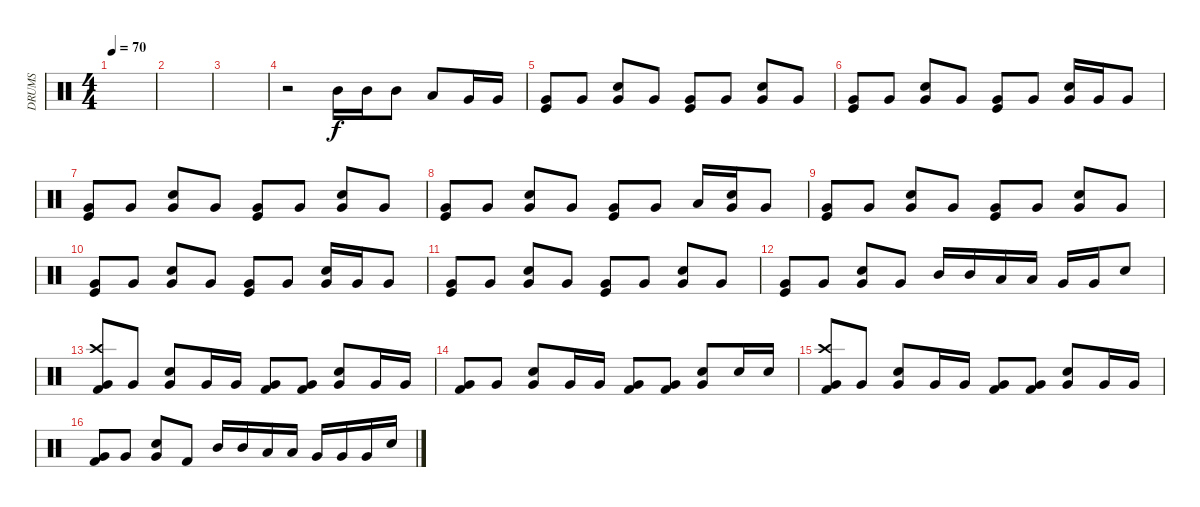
\track ("DRUMS" "DRUMS") {instrument percussion}
\staff {score}
\articulation defaults
\ts (4 4)
\tempo 70
\clef neutral
\ks c
|
|
|
r.2 "Mid Tom (hit)".16 "Mid Tom (hit)".16 "Mid Tom (hit)".8 "Low Tom (hit)".8 "Very Low Tom (hit)".16 "Very Low Tom (hit)".16 |
("Kick (hit)" "Very Low Tom (hit)").8 "Very Low Tom (hit)".8 ("Snare (hit) 2" "Very Low Tom (hit)").8 "Very Low Tom (hit)".8 ("Kick (hit)" "Very Low Tom (hit)").8 "Very Low Tom (hit)".8 ("Snare (hit) 2" "Very Low Tom (hit)").8 "Very Low Tom (hit)".8 |
("Kick (hit)" "Very Low Tom (hit)").8 "Very Low Tom (hit)".8 ("Snare (hit) 2" "Very Low Tom (hit)").8 "Very Low Tom (hit)".8 ("Kick (hit)" "Very Low Tom (hit)").8 "Very Low Tom (hit)".8 ("Snare (hit) 2" "Very Low Tom (hit)").16 "Very Low Tom (hit)".16 "Very Low Tom (hit)".8 |
("Kick (hit)" "Very Low Tom (hit)").8 "Very Low Tom (hit)".8 ("Snare (hit) 2" "Very Low Tom (hit)").8 "Very Low Tom (hit)".8 ("Kick (hit)" "Very Low Tom (hit)").8 "Very Low Tom (hit)".8 ("Snare (hit) 2" "Very Low Tom (hit)").8 "Very Low Tom (hit)".8 |
("Kick (hit)" "Very Low Tom (hit)").8 "Very Low Tom (hit)".8 ("Snare (hit) 2" "Very Low Tom (hit)").8 "Very Low Tom (hit)".8 ("Kick (hit)" "Very Low Tom (hit)").8 "Very Low Tom (hit)".8 "Low Tom (hit)".16 ("Snare (hit) 2" "Very Low Tom (hit)").16 "Very Low Tom (hit)".8 |
("Kick (hit)" "Very Low Tom (hit)").8 "Very Low Tom (hit)".8 ("Snare (hit) 2" "Very Low Tom (hit)").8 "Very Low Tom (hit)".8 ("Kick (hit)" "Very Low Tom (hit)").8 "Very Low Tom (hit)".8 ("Snare (hit) 2" "Very Low Tom (hit)").8 "Very Low Tom (hit)".8 |
("Kick (hit)" "Very Low Tom (hit)").8 "Very Low Tom (hit)".8 ("Snare (hit) 2" "Very Low Tom (hit)").8 "Very Low Tom (hit)".8 ("Kick (hit)" "Very Low Tom (hit)").8 "Very Low Tom (hit)".8 ("Snare (hit) 2" "Very Low Tom (hit)").16 "Very Low Tom (hit)".16 "Very Low Tom (hit)".8 |
("Kick (hit)" "Very Low Tom (hit)").8 "Very Low Tom (hit)".8 ("Snare (hit) 2" "Very Low Tom (hit)").8 "Very Low Tom (hit)".8 ("Kick (hit)" "Very Low Tom (hit)").8 "Very Low Tom (hit)".8 ("Snare (hit) 2" "Very Low Tom (hit)").8 "Very Low Tom (hit)".8 |
("Kick (hit)" "Very Low Tom (hit)").8 "Very Low Tom (hit)".8 ("Snare (hit) 2" "Very Low Tom (hit)").8 "Very Low Tom (hit)".8 "Mid Tom (hit)".16 "Mid Tom (hit)".16 "Low Tom (hit)".16 "Low Tom (hit)".16 "Very Low Tom (hit)".16 "Very Low Tom (hit)".16 "Snare (hit) 2".8 |
("Crash high (hit)" "Kick (hit) 2" "Very Low Tom (hit)").8 "Very Low Tom (hit)".8 ("Snare (hit) 2" "Very Low Tom (hit)").8 "Very Low Tom (hit)".16 "Very Low Tom (hit)".16 ("Kick (hit) 2" "Very Low Tom (hit)").8 ("Kick (hit) 2" "Very Low Tom (hit)").8 ("Snare (hit) 2" "Very Low Tom (hit)").8 "Very Low Tom (hit)".16 "Very Low Tom (hit)".16 |
("Kick (hit) 2" "Very Low Tom (hit)").8 "Very Low Tom (hit)".8 ("Snare (hit) 2" "Very Low Tom (hit)").8 "Very Low Tom (hit)".16 "Very Low Tom (hit)".16 ("Kick (hit) 2" "Very Low Tom (hit)").8 ("Kick (hit) 2" "Very Low Tom (hit)").8 ("Snare (hit) 2" "Very Low Tom (hit)").8 "Snare (hit) 2".16 "Snare (hit) 2".16 |
("Crash high (hit)" "Kick (hit) 2" "Very Low Tom (hit)").8 "Very Low Tom (hit)".8 ("Snare (hit) 2" "Very Low Tom (hit)").8 "Very Low Tom (hit)".16 "Very Low Tom (hit)".16 ("Kick (hit) 2" "Very Low Tom (hit)").8 ("Kick (hit) 2" "Very Low Tom (hit)").8 ("Snare (hit) 2" "Very Low Tom (hit)").8 "Very Low Tom (hit)".16 "Very Low Tom (hit)".16 |
("Kick (hit) 2" "Very Low Tom (hit)").8 "Very Low Tom (hit)".8 ("Snare (hit) 2" "Very Low Tom (hit)").8 "Kick (hit) 2".8 "Mid Tom (hit)".16 "Mid Tom (hit)".16 "Low Tom (hit)".16 "Low Tom (hit)".16 "Very Low Tom (hit)".16 "Very Low Tom (hit)".16 "Very Low Tom (hit)".16 "Snare (hit) 2".16
